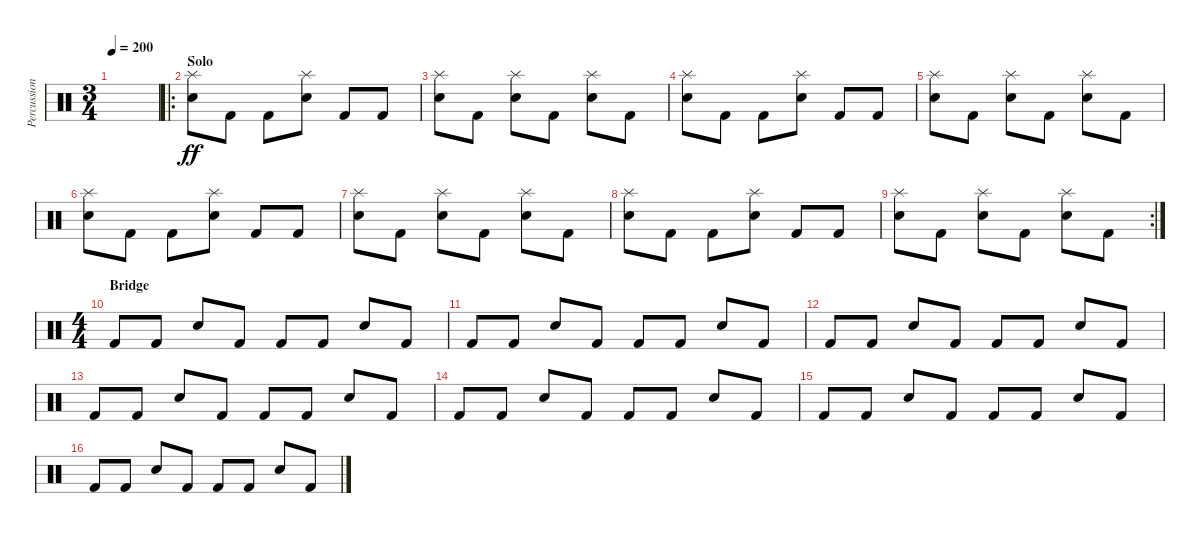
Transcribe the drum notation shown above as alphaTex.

\track ("Percussion" "Percussion") {instrument percussion}
\staff {score}
\articulation defaults
\ts (3 4)
\tempo 200
\clef neutral
\ks c
|
\ro
\section ("" "Solo")
("Splash (hit)" "Electric Snare (hit)").8{dy ff} "Kick (hit) 2".8 "Kick (hit) 2".8 ("Splash (hit)" "Electric Snare (hit)").8 "Kick (hit) 2".8 "Kick (hit) 2".8 |
("Splash (hit)" "Electric Snare (hit)").8 "Kick (hit) 2".8 ("Splash (hit)" "Electric Snare (hit)").8 "Kick (hit) 2".8 ("Splash (hit)" "Electric Snare (hit)").8 "Kick (hit) 2".8 |
("Splash (hit)" "Electric Snare (hit)").8 "Kick (hit) 2".8 "Kick (hit) 2".8 ("Splash (hit)" "Electric Snare (hit)").8 "Kick (hit) 2".8 "Kick (hit) 2".8 |
("Splash (hit)" "Electric Snare (hit)").8 "Kick (hit) 2".8 ("Splash (hit)" "Electric Snare (hit)").8 "Kick (hit) 2".8 ("Splash (hit)" "Electric Snare (hit)").8 "Kick (hit) 2".8 |
("Splash (hit)" "Electric Snare (hit)").8 "Kick (hit) 2".8 "Kick (hit) 2".8 ("Splash (hit)" "Electric Snare (hit)").8 "Kick (hit) 2".8 "Kick (hit) 2".8 |
("Splash (hit)" "Electric Snare (hit)").8 "Kick (hit) 2".8 ("Splash (hit)" "Electric Snare (hit)").8 "Kick (hit) 2".8 ("Splash (hit)" "Electric Snare (hit)").8 "Kick (hit) 2".8 |
("Splash (hit)" "Electric Snare (hit)").8 "Kick (hit) 2".8 "Kick (hit) 2".8 ("Splash (hit)" "Electric Snare (hit)").8 "Kick (hit) 2".8 "Kick (hit) 2".8 |
\rc 2
("Splash (hit)" "Electric Snare (hit)").8 "Kick (hit) 2".8 ("Splash (hit)" "Electric Snare (hit)").8 "Kick (hit) 2".8 ("Splash (hit)" "Electric Snare (hit)").8 "Kick (hit) 2".8 |
\ts (4 4)
\section ("" "Bridge")
"Kick (hit) 2".8 "Kick (hit) 2".8 "Electric Snare (hit)".8 "Kick (hit) 2".8 "Kick (hit) 2".8 "Kick (hit) 2".8 "Electric Snare (hit)".8 "Kick (hit) 2".8 |
"Kick (hit) 2".8 "Kick (hit) 2".8 "Electric Snare (hit)".8 "Kick (hit) 2".8 "Kick (hit) 2".8 "Kick (hit) 2".8 "Electric Snare (hit)".8 "Kick (hit) 2".8 |
"Kick (hit) 2".8 "Kick (hit) 2".8 "Electric Snare (hit)".8 "Kick (hit) 2".8 "Kick (hit) 2".8 "Kick (hit) 2".8 "Electric Snare (hit)".8 "Kick (hit) 2".8 |
"Kick (hit) 2".8 "Kick (hit) 2".8 "Electric Snare (hit)".8 "Kick (hit) 2".8 "Kick (hit) 2".8 "Kick (hit) 2".8 "Electric Snare (hit)".8 "Kick (hit) 2".8 |
"Kick (hit) 2".8 "Kick (hit) 2".8 "Electric Snare (hit)".8 "Kick (hit) 2".8 "Kick (hit) 2".8 "Kick (hit) 2".8 "Electric Snare (hit)".8 "Kick (hit) 2".8 |
"Kick (hit) 2".8 "Kick (hit) 2".8 "Electric Snare (hit)".8 "Kick (hit) 2".8 "Kick (hit) 2".8 "Kick (hit) 2".8 "Electric Snare (hit)".8 "Kick (hit) 2".8 |
"Kick (hit) 2".8 "Kick (hit) 2".8 "Electric Snare (hit)".8 "Kick (hit) 2".8 "Kick (hit) 2".8 "Kick (hit) 2".8 "Electric Snare (hit)".8 "Kick (hit) 2".8
